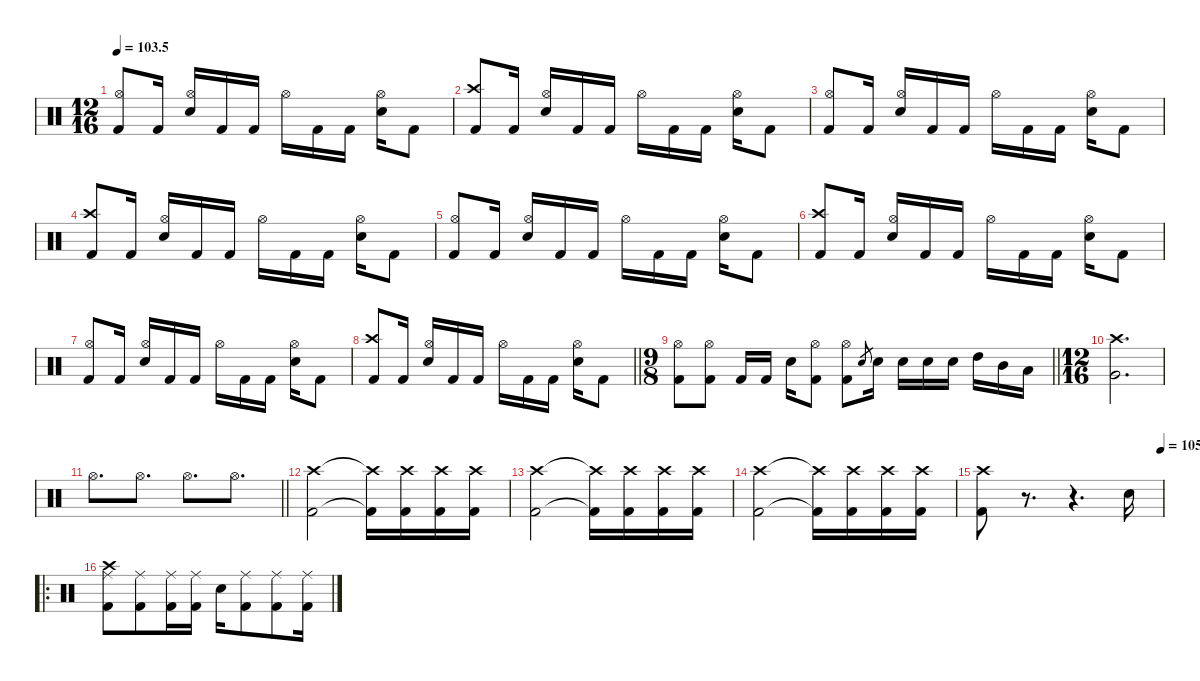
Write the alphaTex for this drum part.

\defaultSystemsLayout 4
\hideDynamics
\bracketExtendMode nobrackets
\singleTrackTrackNamePolicy hidden
\multiTrackTrackNamePolicy hidden
\firstSystemTrackNameMode fullname
\firstSystemTrackNameOrientation horizontal
\otherSystemsTrackNameOrientation horizontal
\track ("Drums" "drm.") {instrument percussion}
\staff {score}
\articulation defaults
\ts (12 16)
\tempo
103.5
\accidentals auto
\clef neutral
\ottava regular
\simile none
\ks c
("Hi-Hat (open)" "Kick (hit) 2").8{dy f beam Up} "Kick (hit) 2".16{dy ff beam Up} ("Hi-Hat (open)" "Snare (hit) 2").16{dy f beam Up} "Kick (hit) 2".16{dy ff beam Up} "Kick (hit) 2".16{beam Up} "Hi-Hat (open)".16{dy f beam Down} "Kick (hit) 2".16{dy ff beam Down} "Kick (hit) 2".16{beam Down} ("Hi-Hat (open)" "Snare (hit) 2").16{dy f beam Down} "Kick (hit) 2".8{dy ff beam Down} |
("Crash high (hit)" "Kick (hit) 2").8{dy f beam Up} "Kick (hit) 2".16{dy ff beam Up} ("Hi-Hat (open)" "Snare (hit) 2").16{dy f beam Up} "Kick (hit) 2".16{dy ff beam Up} "Kick (hit) 2".16{beam Up} "Hi-Hat (open)".16{dy f beam Down} "Kick (hit) 2".16{dy ff beam Down} "Kick (hit) 2".16{beam Down} ("Hi-Hat (open)" "Snare (hit) 2").16{dy f beam Down} "Kick (hit) 2".8{dy ff beam Down} |
("Hi-Hat (open)" "Kick (hit) 2").8{dy f beam Up} "Kick (hit) 2".16{dy ff beam Up} ("Hi-Hat (open)" "Snare (hit) 2").16{dy f beam Up} "Kick (hit) 2".16{dy ff beam Up} "Kick (hit) 2".16{beam Up} "Hi-Hat (open)".16{dy f beam Down} "Kick (hit) 2".16{dy ff beam Down} "Kick (hit) 2".16{beam Down} ("Hi-Hat (open)" "Snare (hit) 2").16{dy f beam Down} "Kick (hit) 2".8{dy ff beam Down} |
("Crash high (hit)" "Kick (hit) 2").8{dy f beam Up} "Kick (hit) 2".16{dy ff beam Up} ("Hi-Hat (open)" "Snare (hit) 2").16{dy f beam Up} "Kick (hit) 2".16{dy ff beam Up} "Kick (hit) 2".16{beam Up} "Hi-Hat (open)".16{dy f beam Down} "Kick (hit) 2".16{dy ff beam Down} "Kick (hit) 2".16{beam Down} ("Hi-Hat (open)" "Snare (hit) 2").16{dy f beam Down} "Kick (hit) 2".8{dy ff beam Down} |
("Hi-Hat (open)" "Kick (hit) 2").8{dy f beam Up} "Kick (hit) 2".16{dy ff beam Up} ("Hi-Hat (open)" "Snare (hit) 2").16{dy f beam Up} "Kick (hit) 2".16{dy ff beam Up} "Kick (hit) 2".16{beam Up} "Hi-Hat (open)".16{dy f beam Down} "Kick (hit) 2".16{dy ff beam Down} "Kick (hit) 2".16{beam Down} ("Hi-Hat (open)" "Snare (hit) 2").16{dy f beam Down} "Kick (hit) 2".8{dy ff beam Down} |
("Crash high (hit)" "Kick (hit) 2").8{dy f beam Up} "Kick (hit) 2".16{dy ff beam Up} ("Hi-Hat (open)" "Snare (hit) 2").16{dy f beam Up} "Kick (hit) 2".16{dy ff beam Up} "Kick (hit) 2".16{beam Up} "Hi-Hat (open)".16{dy f beam Down} "Kick (hit) 2".16{dy ff beam Down} "Kick (hit) 2".16{beam Down} ("Hi-Hat (open)" "Snare (hit) 2").16{dy f beam Down} "Kick (hit) 2".8{dy ff beam Down} |
("Hi-Hat (open)" "Kick (hit) 2").8{dy f beam Up} "Kick (hit) 2".16{dy ff beam Up} ("Hi-Hat (open)" "Snare (hit) 2").16{dy f beam Up} "Kick (hit) 2".16{dy ff beam Up} "Kick (hit) 2".16{beam Up} "Hi-Hat (open)".16{dy f beam Down} "Kick (hit) 2".16{dy ff beam Down} "Kick (hit) 2".16{beam Down} ("Hi-Hat (open)" "Snare (hit) 2").16{dy f beam Down} "Kick (hit) 2".8{dy ff beam Down} |
\barLineRight lightlight
("Crash high (hit)" "Kick (hit) 2").8{dy f beam Up} "Kick (hit) 2".16{dy ff beam Up} ("Hi-Hat (open)" "Snare (hit) 2").16{dy f beam Up} "Kick (hit) 2".16{dy ff beam Up} "Kick (hit) 2".16{beam Up} "Hi-Hat (open)".16{dy f beam Down} "Kick (hit) 2".16{dy ff beam Down} "Kick (hit) 2".16{beam Down} ("Hi-Hat (open)" "Snare (hit) 2").16{dy f beam Down} "Kick (hit) 2".8{dy ff beam Down} |
\ts (9 8)
\beaming (8 3 3)
\barLineRight lightlight
("Hi-Hat (open)" "Kick (hit) 2").8{dy f beam Down} ("Hi-Hat (open)" "Kick (hit) 2").8{beam Down beam split} "Kick (hit) 2".16{beam Up} "Kick (hit) 2".16{beam Up} "Snare (hit) 2".16{beam Down} ("Hi-Hat (open)" "Kick (hit) 2").8{beam Down beam split} ("Hi-Hat (open)" "Kick (hit) 2").8{beam Down} "Electric Snare (hit)".8{gr dy mf beam Up} "Snare (hit) 2".16{dy f beam Down} "Snare (hit) 2".16{beam Down beam merge} "Snare (hit) 2".16{beam Down beam merge} "Snare (hit) 2".16{beam Down beam split} "High Tom (hit)".16{beam Down beam merge} "Mid Tom (hit)".16{beam Down beam merge} "Low Tom (hit)".16{beam Down} |
\ts (12 16)
\beaming (8 3 3)
("Crash high (hit)" "Very Low Tom (hit)").2{d beam Down} |
\barLineRight lightlight "Hi-Hat (open)".8{d beam Down} "Hi-Hat (open)".8{d beam Down} "Hi-Hat (open)".8{d beam Down} "Hi-Hat (open)".8{d beam Down}
|
("Crash high (hit)" "Kick (hit) 2").2{beam Down} ("Crash high (hit)"{t} "Kick (hit) 2"{t}).16{beam Down} ("Crash high (hit)" "Kick (hit) 2").16{dy mf beam Down} ("Crash high (hit)" "Kick (hit) 2").16{dy f beam Down} ("Crash high (hit)" "Kick (hit) 2").16{dy mf beam Down} |
("Crash high (hit)" "Kick (hit) 2").2{dy f beam Down} ("Crash high (hit)"{t} "Kick (hit) 2"{t}).16{beam Down} ("Crash high (hit)" "Kick (hit) 2").16{dy mf beam Down} ("Crash high (hit)" "Kick (hit) 2").16{dy f beam Down} ("Crash high (hit)" "Kick (hit) 2").16{dy mf beam Down} |
("Crash high (hit)" "Kick (hit) 2").2{dy f beam Down} ("Crash high (hit)"{t} "Kick (hit) 2"{t}).16{beam Down} ("Crash high (hit)" "Kick (hit) 2").16{dy mf beam Down} ("Crash high (hit)" "Kick (hit) 2").16{dy f beam Down} ("Crash high (hit)" "Kick (hit) 2").16{dy mf beam Down} |
\tempo (105 0.99375)
("Crash high (hit)" "Kick (hit) 2").8{dy f beam Down} r.8{d beam Down} r.4{d beam Down} "Snare (hit) 2".16{dy fff beam Down} |
\ro
("Ride (middle)" "Crash high (hit)" "Kick (hit) 2").8{dy f beam Down} ("Ride (middle)" "Kick (hit) 2").8{beam Down} ("Ride (middle)" "Kick (hit) 2").16{beam Down} ("Ride (middle)" "Kick (hit) 2").16{beam Down} "Snare (hit) 2".16{beam Down} ("Ride (middle)" "Kick (hit) 2").8{beam Down} ("Ride (middle)" "Kick (hit) 2").8{beam Down} ("Ride (middle)" "Kick (hit) 2").16{beam Down}
